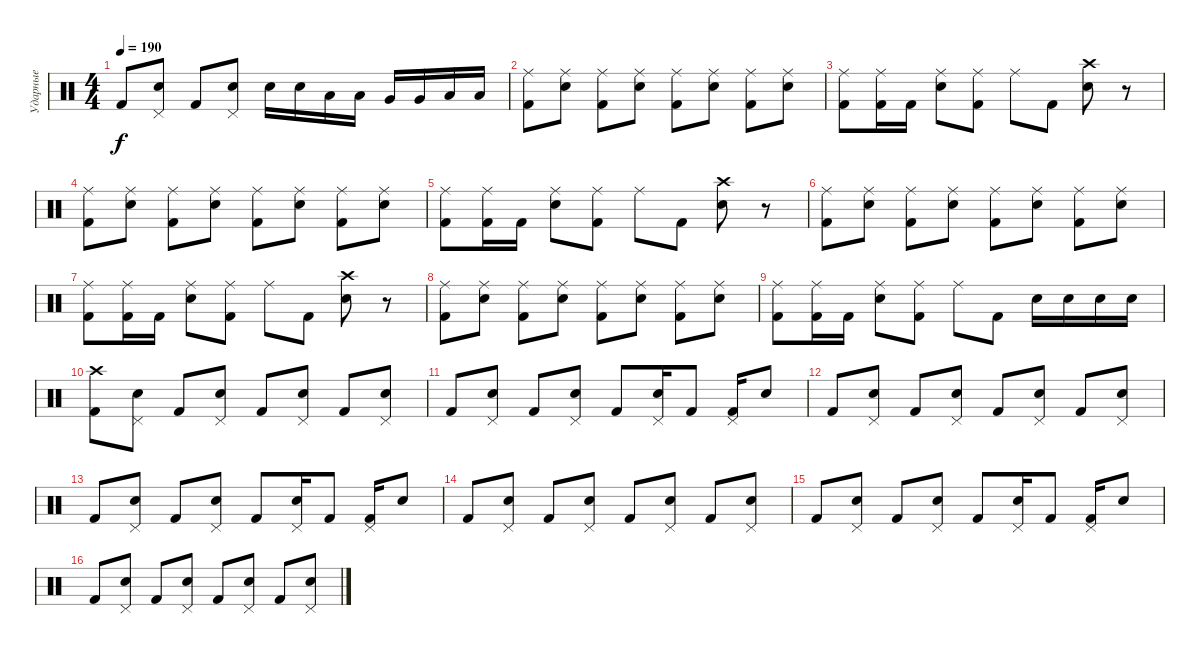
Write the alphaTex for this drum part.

\track ("Ударные" "Ударные") {instrument percussion}
\staff {score}
\articulation defaults
\ts (4 4)
\tempo 190
\clef neutral
\ks c "Kick (hit) 2".8{dy f}
("Pedal Hi-Hat (hit)" "Electric Snare (hit)").8 "Kick (hit) 2".8 ("Pedal Hi-Hat (hit)" "Electric Snare (hit)").8 "Electric Snare (hit)".16 "Electric Snare (hit)".16 "Low Tom (hit)".16 "Low Tom (hit)".16 "Very Low Tom (hit)".16 "Very Low Tom (hit)".16 "Low Floor Tom (hit)".16 "Low Floor Tom (hit)".16 |
("Ride (middle)" "Kick (hit) 2").8 ("Ride (middle)" "Electric Snare (hit)").8 ("Ride (middle)" "Kick (hit) 2").8 ("Ride (middle)" "Electric Snare (hit)").8 ("Ride (middle)" "Kick (hit) 2").8 ("Ride (middle)" "Electric Snare (hit)").8 ("Ride (middle)" "Kick (hit) 2").8 ("Ride (middle)" "Electric Snare (hit)").8 |
("Ride (middle)" "Kick (hit) 2").8 ("Ride (middle)" "Kick (hit) 2").16 "Kick (hit) 2".16 ("Ride (middle)" "Electric Snare (hit)").8 ("Ride (middle)" "Kick (hit) 2").8 "Ride (middle)".8 "Kick (hit) 2".8 ("Crash high (hit)" "Electric Snare (hit)").8 r.8 |
("Ride (middle)" "Kick (hit) 2").8 ("Ride (middle)" "Electric Snare (hit)").8 ("Ride (middle)" "Kick (hit) 2").8 ("Ride (middle)" "Electric Snare (hit)").8 ("Ride (middle)" "Kick (hit) 2").8 ("Ride (middle)" "Electric Snare (hit)").8 ("Ride (middle)" "Kick (hit) 2").8 ("Ride (middle)" "Electric Snare (hit)").8 |
("Ride (middle)" "Kick (hit) 2").8 ("Ride (middle)" "Kick (hit) 2").16 "Kick (hit) 2".16 ("Ride (middle)" "Electric Snare (hit)").8 ("Ride (middle)" "Kick (hit) 2").8 "Ride (middle)".8 "Kick (hit) 2".8 ("Crash high (hit)" "Electric Snare (hit)").8 r.8 |
("Ride (middle)" "Kick (hit) 2").8 ("Ride (middle)" "Electric Snare (hit)").8 ("Ride (middle)" "Kick (hit) 2").8 ("Ride (middle)" "Electric Snare (hit)").8 ("Ride (middle)" "Kick (hit) 2").8 ("Ride (middle)" "Electric Snare (hit)").8 ("Ride (middle)" "Kick (hit) 2").8 ("Ride (middle)" "Electric Snare (hit)").8 |
("Ride (middle)" "Kick (hit) 2").8 ("Ride (middle)" "Kick (hit) 2").16 "Kick (hit) 2".16 ("Ride (middle)" "Electric Snare (hit)").8 ("Ride (middle)" "Kick (hit) 2").8 "Ride (middle)".8 "Kick (hit) 2".8 ("Crash high (hit)" "Electric Snare (hit)").8 r.8 |
("Ride (middle)" "Kick (hit) 2").8 ("Ride (middle)" "Electric Snare (hit)").8 ("Ride (middle)" "Kick (hit) 2").8 ("Ride (middle)" "Electric Snare (hit)").8 ("Ride (middle)" "Kick (hit) 2").8 ("Ride (middle)" "Electric Snare (hit)").8 ("Ride (middle)" "Kick (hit) 2").8 ("Ride (middle)" "Electric Snare (hit)").8 |
("Ride (middle)" "Kick (hit) 2").8 ("Ride (middle)" "Kick (hit) 2").16 "Kick (hit) 2".16 ("Ride (middle)" "Electric Snare (hit)").8 ("Ride (middle)" "Kick (hit) 2").8 "Ride (middle)".8 "Kick (hit) 2".8 "Electric Snare (hit)".16 "Electric Snare (hit)".16 "Electric Snare (hit)".16 "Electric Snare (hit)".16 |
("Crash high (hit)" "Kick (hit) 2").8 ("Pedal Hi-Hat (hit)" "Electric Snare (hit)").8 "Kick (hit) 2".8 ("Pedal Hi-Hat (hit)" "Electric Snare (hit)").8 "Kick (hit) 2".8 ("Pedal Hi-Hat (hit)" "Electric Snare (hit)").8 "Kick (hit) 2".8 ("Pedal Hi-Hat (hit)" "Electric Snare (hit)").8 |
"Kick (hit) 2".8 ("Pedal Hi-Hat (hit)" "Electric Snare (hit)").8 "Kick (hit) 2".8 ("Pedal Hi-Hat (hit)" "Electric Snare (hit)").8 "Kick (hit) 2".8 ("Pedal Hi-Hat (hit)" "Electric Snare (hit)").16 "Kick (hit) 2".8 ("Pedal Hi-Hat (hit)" "Kick (hit) 2").16 "Electric Snare (hit)".8 |
"Kick (hit) 2".8 ("Pedal Hi-Hat (hit)" "Electric Snare (hit)").8 "Kick (hit) 2".8 ("Pedal Hi-Hat (hit)" "Electric Snare (hit)").8 "Kick (hit) 2".8 ("Pedal Hi-Hat (hit)" "Electric Snare (hit)").8 "Kick (hit) 2".8 ("Pedal Hi-Hat (hit)" "Electric Snare (hit)").8 |
"Kick (hit) 2".8 ("Pedal Hi-Hat (hit)" "Electric Snare (hit)").8 "Kick (hit) 2".8 ("Pedal Hi-Hat (hit)" "Electric Snare (hit)").8 "Kick (hit) 2".8 ("Pedal Hi-Hat (hit)" "Electric Snare (hit)").16 "Kick (hit) 2".8 ("Pedal Hi-Hat (hit)" "Kick (hit) 2").16 "Electric Snare (hit)".8 |
"Kick (hit) 2".8 ("Pedal Hi-Hat (hit)" "Electric Snare (hit)").8 "Kick (hit) 2".8 ("Pedal Hi-Hat (hit)" "Electric Snare (hit)").8 "Kick (hit) 2".8 ("Pedal Hi-Hat (hit)" "Electric Snare (hit)").8 "Kick (hit) 2".8 ("Pedal Hi-Hat (hit)" "Electric Snare (hit)").8 |
"Kick (hit) 2".8 ("Pedal Hi-Hat (hit)" "Electric Snare (hit)").8 "Kick (hit) 2".8 ("Pedal Hi-Hat (hit)" "Electric Snare (hit)").8 "Kick (hit) 2".8 ("Pedal Hi-Hat (hit)" "Electric Snare (hit)").16 "Kick (hit) 2".8 ("Pedal Hi-Hat (hit)" "Kick (hit) 2").16 "Electric Snare (hit)".8 |
"Kick (hit) 2".8 ("Pedal Hi-Hat (hit)" "Electric Snare (hit)").8 "Kick (hit) 2".8 ("Pedal Hi-Hat (hit)" "Electric Snare (hit)").8 "Kick (hit) 2".8 ("Pedal Hi-Hat (hit)" "Electric Snare (hit)").8 "Kick (hit) 2".8 ("Pedal Hi-Hat (hit)" "Electric Snare (hit)").8
